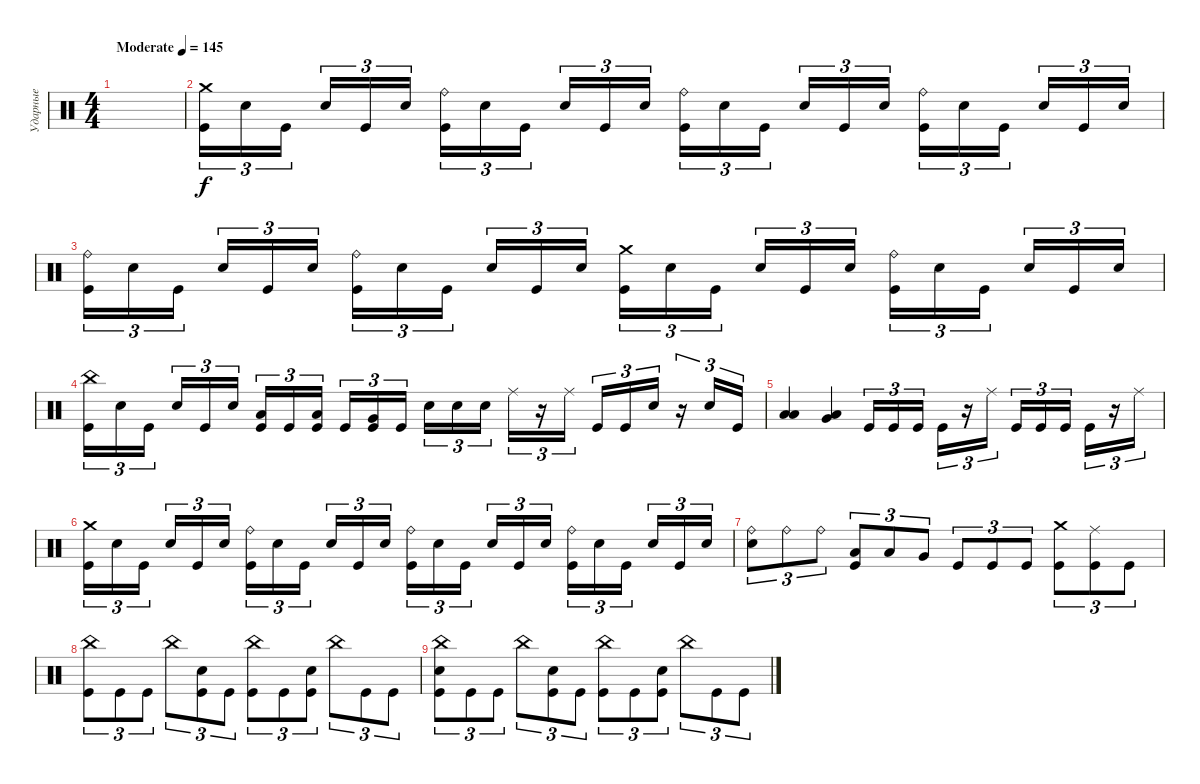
\track ("Ударные" "Ударные") {instrument percussion}
\staff {score}
\articulation defaults
\ts (4 4)
\tempo (145 "Moderate")
\clef neutral
\ks c
|
("Crash medium (hit)" "Kick (hit)").16{tu (3 2)} "Electric Snare (hit)".16{tu (3 2)} "Kick (hit)".16{tu (3 2) beam splitsecondary} "Electric Snare (hit)".16{tu (3 2)} "Kick (hit)".16{tu (3 2)} "Electric Snare (hit)".16{tu (3 2)} ("Ride (bell)" "Kick (hit)").16{tu (3 2)} "Electric Snare (hit)".16{tu (3 2)} "Kick (hit)".16{tu (3 2) beam splitsecondary} "Electric Snare (hit)".16{tu (3 2)} "Kick (hit)".16{tu (3 2)} "Electric Snare (hit)".16{tu (3 2)} ("Ride (bell)" "Kick (hit)").16{tu (3 2)} "Electric Snare (hit)".16{tu (3 2)} "Kick (hit)".16{tu (3 2) beam splitsecondary} "Electric Snare (hit)".16{tu (3 2)} "Kick (hit)".16{tu (3 2)} "Electric Snare (hit)".16{tu (3 2)} ("Ride (bell)" "Kick (hit)").16{tu (3 2)} "Electric Snare (hit)".16{tu (3 2)} "Kick (hit)".16{tu (3 2) beam splitsecondary} "Electric Snare (hit)".16{tu (3 2)} "Kick (hit)".16{tu (3 2)} "Electric Snare (hit)".16{tu (3 2)} |
("Ride (bell)" "Kick (hit)").16{tu (3 2)} "Electric Snare (hit)".16{tu (3 2)} "Kick (hit)".16{tu (3 2) beam splitsecondary} "Electric Snare (hit)".16{tu (3 2)} "Kick (hit)".16{tu (3 2)} "Electric Snare (hit)".16{tu (3 2)} ("Ride (bell)" "Kick (hit)").16{tu (3 2)} "Electric Snare (hit)".16{tu (3 2)} "Kick (hit)".16{tu (3 2) beam splitsecondary} "Electric Snare (hit)".16{tu (3 2)} "Kick (hit)".16{tu (3 2)} "Electric Snare (hit)".16{tu (3 2)} ("Crash medium (hit)" "Kick (hit)").16{tu (3 2)} "Electric Snare (hit)".16{tu (3 2)} "Kick (hit)".16{tu (3 2) beam splitsecondary} "Electric Snare (hit)".16{tu (3 2)} "Kick (hit)".16{tu (3 2)} "Electric Snare (hit)".16{tu (3 2)} ("Ride (bell)" "Kick (hit)").16{tu (3 2)} "Electric Snare (hit)".16{tu (3 2)} "Kick (hit)".16{tu (3 2) beam splitsecondary} "Electric Snare (hit)".16{tu (3 2)} "Kick (hit)".16{tu (3 2)} "Electric Snare (hit)".16{tu (3 2)} |
("China (hit)" "Kick (hit)").16{tu (3 2)} "Electric Snare (hit)".16{tu (3 2)} "Kick (hit)".16{tu (3 2) beam splitsecondary} "Electric Snare (hit)".16{tu (3 2)} "Kick (hit)".16{tu (3 2)} "Electric Snare (hit)".16{tu (3 2)} ("Low Tom (hit)" "Kick (hit)").16{tu (3 2)} "Kick (hit)".16{tu (3 2)} ("Low Tom (hit)" "Kick (hit)").16{tu (3 2) beam splitsecondary} "Kick (hit)".16{tu (3 2)} ("Very Low Tom (hit)" "Kick (hit)").16{tu (3 2)} "Kick (hit)".16{tu (3 2)} "Electric Snare (hit)".16{tu (3 2)} "Electric Snare (hit)".16{tu (3 2)} "Electric Snare (hit)".16{tu (3 2) beam splitsecondary} "Ride (middle)".16{tu (3 2)} r.16{tu (3 2)} "Ride (middle)".16{tu (3 2)} "Kick (hit)".16{tu (3 2)} "Kick (hit)".16{tu (3 2)} "Electric Snare (hit)".16{tu (3 2)} r.16{tu (3 2)} "Electric Snare (hit)".16{tu (3 2)} "Kick (hit)".16{tu (3 2)} |
("Low Tom (hit)" "Low Floor Tom (hit)").4 ("Very Low Tom (hit)" "Low Floor Tom (hit)").4 "Kick (hit)".16{tu (3 2)} "Kick (hit)".16{tu (3 2)} "Kick (hit)".16{tu (3 2) beam splitsecondary} "Kick (hit)".16{tu (3 2)} r.16{tu (3 2)} "Ride (middle)".16{tu (3 2)} "Kick (hit)".16{tu (3 2)} "Kick (hit)".16{tu (3 2)} "Kick (hit)".16{tu (3 2) beam splitsecondary} "Kick (hit)".16{tu (3 2)} r.16{tu (3 2)} "Ride (middle)".16{tu (3 2)} |
("Crash medium (hit)" "Kick (hit)").16{tu (3 2)} "Electric Snare (hit)".16{tu (3 2)} "Kick (hit)".16{tu (3 2) beam splitsecondary} "Electric Snare (hit)".16{tu (3 2)} "Kick (hit)".16{tu (3 2)} "Electric Snare (hit)".16{tu (3 2)} ("Ride (bell)" "Kick (hit)").16{tu (3 2)} "Electric Snare (hit)".16{tu (3 2)} "Kick (hit)".16{tu (3 2) beam splitsecondary} "Electric Snare (hit)".16{tu (3 2)} "Kick (hit)".16{tu (3 2)} "Electric Snare (hit)".16{tu (3 2)} ("Ride (bell)" "Kick (hit)").16{tu (3 2)} "Electric Snare (hit)".16{tu (3 2)} "Kick (hit)".16{tu (3 2) beam splitsecondary} "Electric Snare (hit)".16{tu (3 2)} "Kick (hit)".16{tu (3 2)} "Electric Snare (hit)".16{tu (3 2)} ("Ride (bell)" "Kick (hit)").16{tu (3 2)} "Electric Snare (hit)".16{tu (3 2)} "Kick (hit)".16{tu (3 2) beam splitsecondary} "Electric Snare (hit)".16{tu (3 2)} "Kick (hit)".16{tu (3 2)} "Electric Snare (hit)".16{tu (3 2)} |
("Ride (bell)" "Electric Snare (hit)").8{tu (3 2)} "Ride (bell)".8{tu (3 2)} "Ride (bell)".8{tu (3 2)} ("Low Tom (hit)" "Kick (hit)").8{tu (3 2)} "Low Tom (hit)".8{tu (3 2)} "Very Low Tom (hit)".8{tu (3 2)} "Kick (hit)".8{tu (3 2)} "Kick (hit)".8{tu (3 2)} "Kick (hit)".8{tu (3 2)} ("Crash medium (hit)" "Kick (hit)").8{tu (3 2)} ("Ride (middle)" "Kick (hit)").8{tu (3 2)} "Kick (hit)".8{tu (3 2)} |
("China (hit)" "Kick (hit)").8{tu (3 2)} "Kick (hit)".8{tu (3 2)} "Kick (hit)".8{tu (3 2)} "China (hit)".8{tu (3 2)} ("Electric Snare (hit)" "Kick (hit)").8{tu (3 2)} "Kick (hit)".8{tu (3 2)} ("China (hit)" "Kick (hit)").8{tu (3 2)} "Kick (hit)".8{tu (3 2)} ("Electric Snare (hit)" "Kick (hit)").8{tu (3 2)} "China (hit)".8{tu (3 2)} "Kick (hit)".8{tu (3 2)} "Kick (hit)".8{tu (3 2)} |
("China (hit)" "Electric Snare (hit)" "Kick (hit)").8{tu (3 2)} "Kick (hit)".8{tu (3 2)} "Kick (hit)".8{tu (3 2)} "China (hit)".8{tu (3 2)} ("Electric Snare (hit)" "Kick (hit)").8{tu (3 2)} "Kick (hit)".8{tu (3 2)} ("China (hit)" "Kick (hit)").8{tu (3 2)} "Kick (hit)".8{tu (3 2)} ("Electric Snare (hit)" "Kick (hit)").8{tu (3 2)} "China (hit)".8{tu (3 2)} "Kick (hit)".8{tu (3 2)} "Kick (hit)".8{tu (3 2)}
